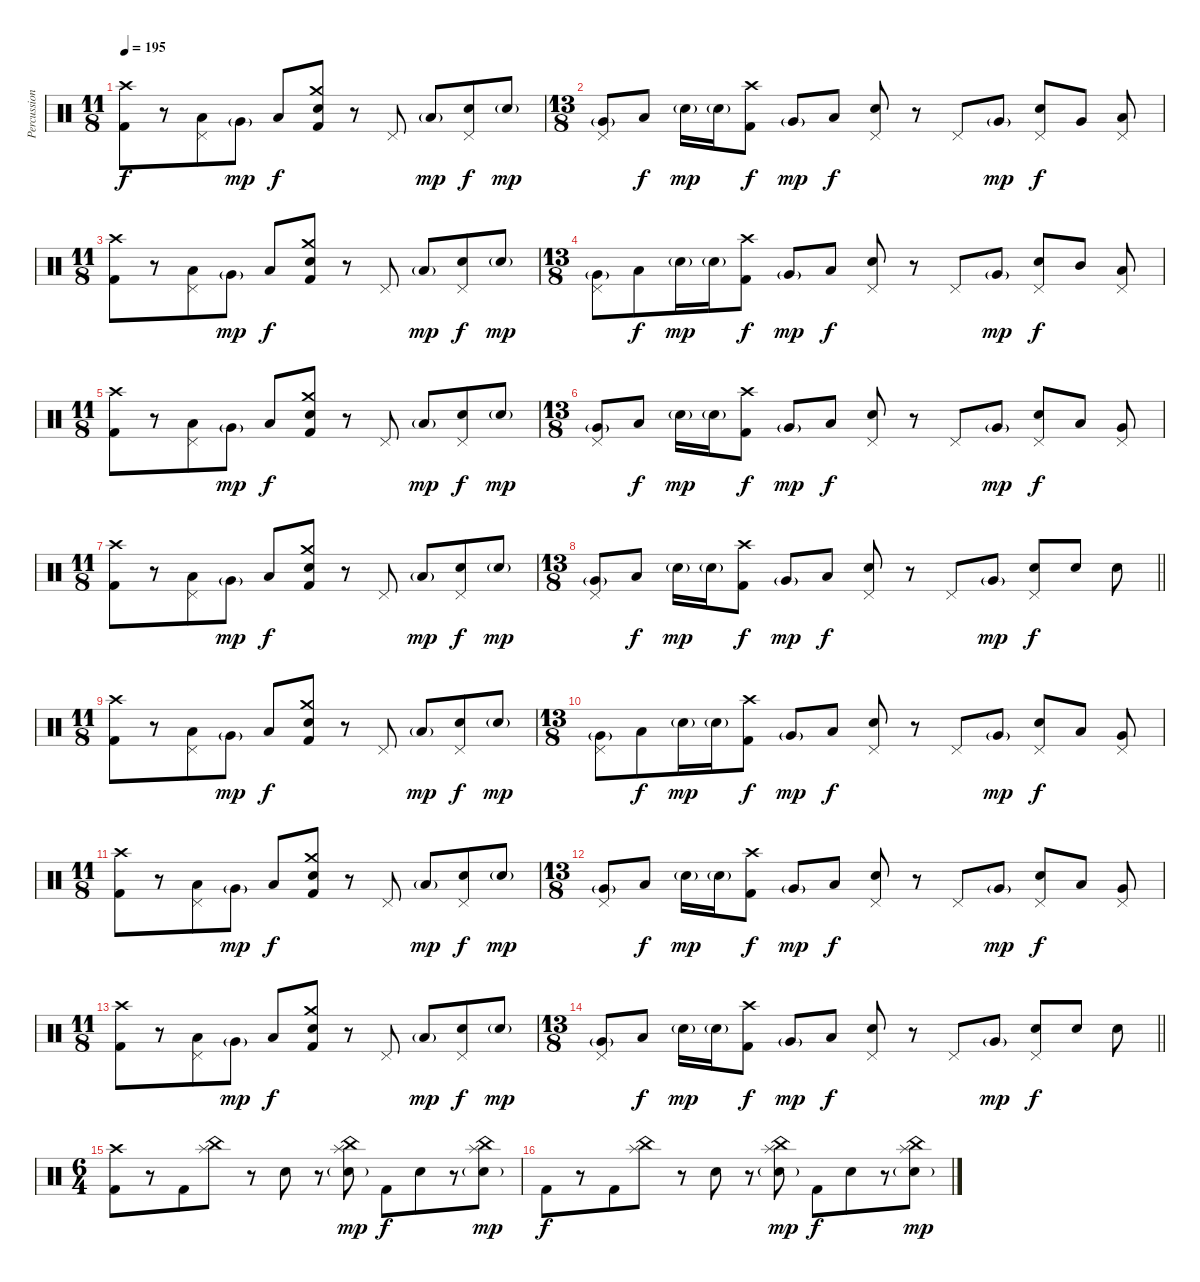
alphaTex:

\track ("Percussion" "Percussion") {instrument percussion bank 237}
\staff {score}
\articulation defaults
\ts (11 8)
\section ("" "")
\tempo 195
\clef neutral
\ks c
("Crash high (hit)" "Kick (hit) 2").8{dy f beam merge} r.8{beam merge} ("Pedal Hi-Hat (hit)" "Low Tom (hit)").8 "Very Low Tom (hit)"{g}.8{dy mp} "Low Floor Tom (hit)".8{dy f} ("Crash medium (hit)" "Electric Snare (hit)" "Kick (hit) 2").8 r.8 "Pedal Hi-Hat (hit)".8 "Low Floor Tom (hit)"{g}.8{dy mp} ("Pedal Hi-Hat (hit)" "Electric Snare (hit)").8{dy f beam merge} "Electric Snare (hit)"{g}.8{dy mp} |
\ts (13 8)
("Pedal Hi-Hat (hit)" "Very Low Tom (hit)"{g}).8 "Low Floor Tom (hit)".8{dy f} "Electric Snare (hit)"{g}.16{dy mp beam merge} "Electric Snare (hit)"{g}.16{beam merge} ("Crash high (hit)" "Kick (hit) 2").8{dy f} "Very Low Tom (hit)"{g}.8{dy mp} "Low Floor Tom (hit)".8{dy f} ("Pedal Hi-Hat (hit)" "Electric Snare (hit)").8 r.8{beam merge} "Pedal Hi-Hat (hit)".8 "Very Low Tom (hit)"{g}.8{dy mp} ("Pedal Hi-Hat (hit)" "Electric Snare (hit)").8{dy f beam merge} "Very Low Tom (hit)".8 ("Pedal Hi-Hat (hit)" "Low Floor Tom (hit)").8 |
\ts (11 8)
("Crash high (hit)" "Kick (hit) 2").8{beam merge} r.8{beam merge} ("Pedal Hi-Hat (hit)" "Low Tom (hit)").8 "Very Low Tom (hit)"{g}.8{dy mp} "Low Floor Tom (hit)".8{dy f} ("Crash medium (hit)" "Electric Snare (hit)" "Kick (hit) 2").8 r.8 "Pedal Hi-Hat (hit)".8 "Low Floor Tom (hit)"{g}.8{dy mp} ("Pedal Hi-Hat (hit)" "Electric Snare (hit)").8{dy f beam merge} "Electric Snare (hit)"{g}.8{dy mp} |
\ts (13 8)
("Pedal Hi-Hat (hit)" "Very Low Tom (hit)"{g}).8 "Low Floor Tom (hit)".8{dy f beam merge} "Electric Snare (hit)"{g}.16{dy mp beam merge} "Electric Snare (hit)"{g}.16{beam merge} ("Crash high (hit)" "Kick (hit) 2").8{dy f} "Very Low Tom (hit)"{g}.8{dy mp} "Low Floor Tom (hit)".8{dy f} ("Pedal Hi-Hat (hit)" "Electric Snare (hit)").8 r.8{beam merge} "Pedal Hi-Hat (hit)".8 "Very Low Tom (hit)"{g}.8{dy mp} ("Pedal Hi-Hat (hit)" "Electric Snare (hit)").8{dy f beam merge} "Mid Tom (hit)".8 ("Pedal Hi-Hat (hit)" "Low Tom (hit)").8 |
\ts (11 8)
("Crash high (hit)" "Kick (hit) 2").8{beam merge} r.8{beam merge} ("Pedal Hi-Hat (hit)" "Low Tom (hit)").8 "Very Low Tom (hit)"{g}.8{dy mp} "Low Floor Tom (hit)".8{dy f} ("Crash medium (hit)" "Electric Snare (hit)" "Kick (hit) 2").8 r.8 "Pedal Hi-Hat (hit)".8 "Low Floor Tom (hit)"{g}.8{dy mp} ("Pedal Hi-Hat (hit)" "Electric Snare (hit)").8{dy f beam merge} "Electric Snare (hit)"{g}.8{dy mp} |
\ts (13 8)
("Pedal Hi-Hat (hit)" "Very Low Tom (hit)"{g}).8 "Low Floor Tom (hit)".8{dy f} "Electric Snare (hit)"{g}.16{dy mp beam merge} "Electric Snare (hit)"{g}.16{beam merge} ("Crash high (hit)" "Kick (hit) 2").8{dy f} "Very Low Tom (hit)"{g}.8{dy mp} "Low Floor Tom (hit)".8{dy f} ("Pedal Hi-Hat (hit)" "Electric Snare (hit)").8 r.8{beam merge} "Pedal Hi-Hat (hit)".8 "Very Low Tom (hit)"{g}.8{dy mp} ("Pedal Hi-Hat (hit)" "Electric Snare (hit)").8{dy f beam merge} "Low Tom (hit)".8 ("Pedal Hi-Hat (hit)" "Very Low Tom (hit)").8 |
\ts (11 8)
("Crash high (hit)" "Kick (hit) 2").8{beam merge} r.8{beam merge} ("Pedal Hi-Hat (hit)" "Low Tom (hit)").8 "Very Low Tom (hit)"{g}.8{dy mp} "Low Floor Tom (hit)".8{dy f} ("Crash medium (hit)" "Electric Snare (hit)" "Kick (hit) 2").8 r.8 "Pedal Hi-Hat (hit)".8 "Low Floor Tom (hit)"{g}.8{dy mp} ("Pedal Hi-Hat (hit)" "Electric Snare (hit)").8{dy f beam merge} "Electric Snare (hit)"{g}.8{dy mp} |
\ts (13 8)
\barLineRight lightlight
("Pedal Hi-Hat (hit)" "Very Low Tom (hit)"{g}).8 "Low Floor Tom (hit)".8{dy f} "Electric Snare (hit)"{g}.16{dy mp beam merge} "Electric Snare (hit)"{g}.16{beam merge} ("Crash high (hit)" "Kick (hit) 2").8{dy f} "Very Low Tom (hit)"{g}.8{dy mp} "Low Floor Tom (hit)".8{dy f} ("Pedal Hi-Hat (hit)" "Electric Snare (hit)").8 r.8{beam merge} "Pedal Hi-Hat (hit)".8 "Very Low Tom (hit)"{g}.8{dy mp} ("Pedal Hi-Hat (hit)" "Electric Snare (hit)").8{dy f beam merge} "Electric Snare (hit)".8 "Electric Snare (hit)".8 |
\ts (11 8)
\section ("" "")
("Crash high (hit)" "Kick (hit) 2").8{beam merge} r.8{beam merge} ("Pedal Hi-Hat (hit)" "Low Tom (hit)").8 "Very Low Tom (hit)"{g}.8{dy mp} "Low Floor Tom (hit)".8{dy f} ("Crash medium (hit)" "Electric Snare (hit)" "Kick (hit) 2").8 r.8 "Pedal Hi-Hat (hit)".8 "Low Floor Tom (hit)"{g}.8{dy mp} ("Pedal Hi-Hat (hit)" "Electric Snare (hit)").8{dy f beam merge} "Electric Snare (hit)"{g}.8{dy mp} |
\ts (13 8)
("Pedal Hi-Hat (hit)" "Very Low Tom (hit)"{g}).8 "Low Floor Tom (hit)".8{dy f beam merge} "Electric Snare (hit)"{g}.16{dy mp beam merge} "Electric Snare (hit)"{g}.16{beam merge} ("Crash high (hit)" "Kick (hit) 2").8{dy f} "Very Low Tom (hit)"{g}.8{dy mp} "Low Floor Tom (hit)".8{dy f} ("Pedal Hi-Hat (hit)" "Electric Snare (hit)").8 r.8{beam merge} "Pedal Hi-Hat (hit)".8 "Very Low Tom (hit)"{g}.8{dy mp} ("Pedal Hi-Hat (hit)" "Electric Snare (hit)").8{dy f beam merge} "Low Tom (hit)".8 ("Pedal Hi-Hat (hit)" "Very Low Tom (hit)").8 |
\ts (11 8)
("Crash high (hit)" "Kick (hit) 2").8{beam merge} r.8{beam merge} ("Pedal Hi-Hat (hit)" "Low Tom (hit)").8 "Very Low Tom (hit)"{g}.8{dy mp} "Low Floor Tom (hit)".8{dy f} ("Crash medium (hit)" "Electric Snare (hit)" "Kick (hit) 2").8 r.8 "Pedal Hi-Hat (hit)".8 "Low Floor Tom (hit)"{g}.8{dy mp} ("Pedal Hi-Hat (hit)" "Electric Snare (hit)").8{dy f beam merge} "Electric Snare (hit)"{g}.8{dy mp} |
\ts (13 8)
("Pedal Hi-Hat (hit)" "Very Low Tom (hit)"{g}).8 "Low Floor Tom (hit)".8{dy f} "Electric Snare (hit)"{g}.16{dy mp beam merge} "Electric Snare (hit)"{g}.16{beam merge} ("Crash high (hit)" "Kick (hit) 2").8{dy f} "Very Low Tom (hit)"{g}.8{dy mp} "Low Floor Tom (hit)".8{dy f} ("Pedal Hi-Hat (hit)" "Electric Snare (hit)").8 r.8{beam merge} "Pedal Hi-Hat (hit)".8 "Very Low Tom (hit)"{g}.8{dy mp} ("Pedal Hi-Hat (hit)" "Electric Snare (hit)").8{dy f beam merge} "Low Tom (hit)".8 ("Pedal Hi-Hat (hit)" "Very Low Tom (hit)").8 |
\ts (11 8)
("Crash high (hit)" "Kick (hit) 2").8{beam merge} r.8{beam merge} ("Pedal Hi-Hat (hit)" "Low Tom (hit)").8 "Very Low Tom (hit)"{g}.8{dy mp} "Low Floor Tom (hit)".8{dy f} ("Crash medium (hit)" "Electric Snare (hit)" "Kick (hit) 2").8 r.8 "Pedal Hi-Hat (hit)".8 "Low Floor Tom (hit)"{g}.8{dy mp} ("Pedal Hi-Hat (hit)" "Electric Snare (hit)").8{dy f beam merge} "Electric Snare (hit)"{g}.8{dy mp} |
\ts (13 8)
\barLineRight lightlight
("Pedal Hi-Hat (hit)" "Very Low Tom (hit)"{g}).8 "Low Floor Tom (hit)".8{dy f} "Electric Snare (hit)"{g}.16{dy mp beam merge} "Electric Snare (hit)"{g}.16{beam merge} ("Crash high (hit)" "Kick (hit) 2").8{dy f} "Very Low Tom (hit)"{g}.8{dy mp} "Low Floor Tom (hit)".8{dy f} ("Pedal Hi-Hat (hit)" "Electric Snare (hit)").8 r.8{beam merge} "Pedal Hi-Hat (hit)".8 "Very Low Tom (hit)"{g}.8{dy mp} ("Pedal Hi-Hat (hit)" "Electric Snare (hit)").8{dy f beam merge} "Electric Snare (hit)".8 "Electric Snare (hit)".8 |
\ts (6 4)
\section ("" "")
("Crash high (hit)" "Kick (hit) 2").8{beam merge} r.8{beam merge} "Kick (hit) 2".8 ("Splash (hit)" "China (hit)").8 r.8 "Electric Snare (hit)".8 r.8 ("Splash (hit)" "China (hit)" "Electric Snare (hit)"{g}).8{dy mp} "Kick (hit) 2".8{dy f} "Electric Snare (hit)".8{beam merge} r.8{beam merge} ("Splash (hit)" "China (hit)" "Electric Snare (hit)"{g}).8{dy mp} |
"Kick (hit) 2".8{dy f beam merge} r.8{beam merge} "Kick (hit) 2".8 ("Splash (hit)" "China (hit)").8 r.8 "Electric Snare (hit)".8 r.8{beam merge} ("Splash (hit)" "China (hit)" "Electric Snare (hit)"{g}).8{dy mp} "Kick (hit) 2".8{dy f} "Electric Snare (hit)".8{beam merge} r.8{beam merge} ("Splash (hit)" "China (hit)" "Electric Snare (hit)"{g}).8{dy mp}
